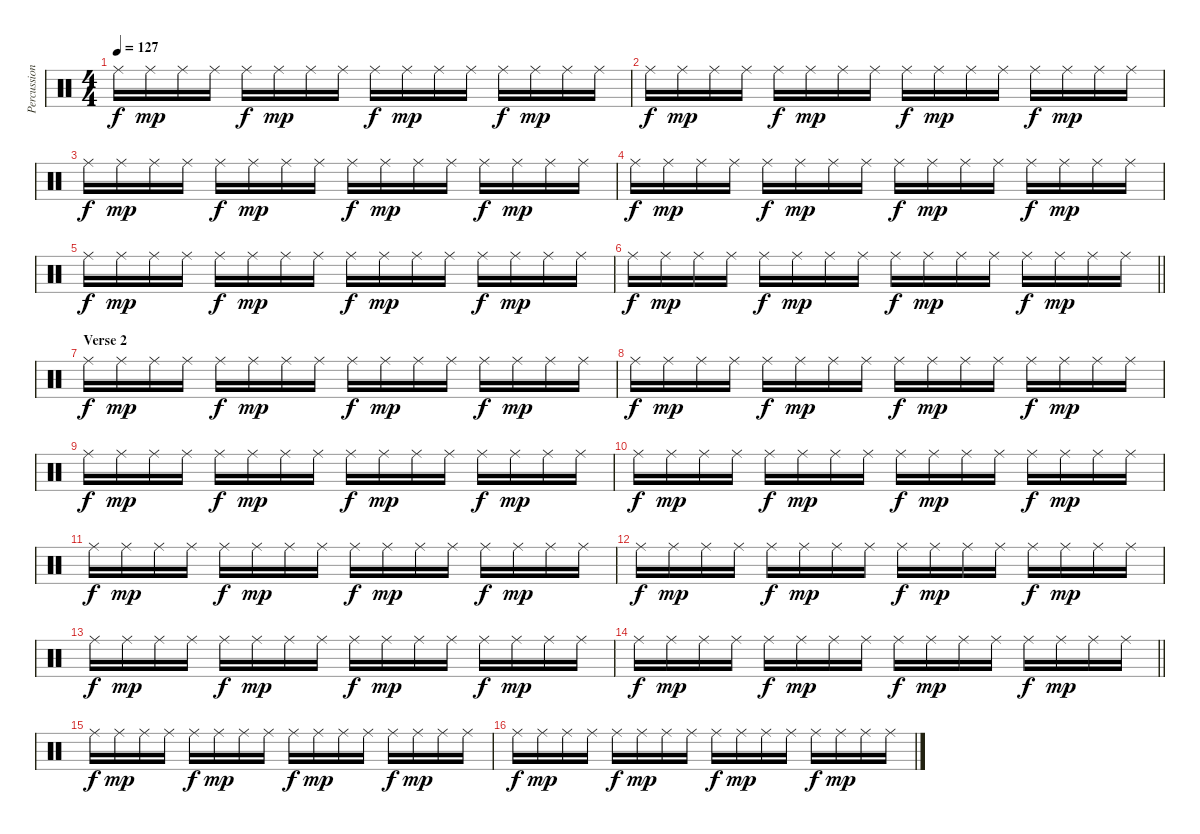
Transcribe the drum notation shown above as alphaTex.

\track ("Percussion" "Percussion") {instrument percussion}
\staff {score}
\articulation defaults
\ts (4 4)
\tempo 127
\clef neutral
\ks c "Ride (middle)".16{dy f} "Ride (middle)".16{dy mp} "Ride (middle)".16 "Ride (middle)".16 "Ride (middle)".16{dy f} "Ride (middle)".16{dy mp} "Ride (middle)".16 "Ride (middle)".16 "Ride (middle)".16{dy f} "Ride (middle)".16{dy mp} "Ride (middle)".16 "Ride (middle)".16 "Ride (middle)".16{dy f} "Ride (middle)".16{dy mp} "Ride (middle)".16 "Ride (middle)".16
|
"Ride (middle)".16{dy f} "Ride (middle)".16{dy mp} "Ride (middle)".16 "Ride (middle)".16 "Ride (middle)".16{dy f} "Ride (middle)".16{dy mp} "Ride (middle)".16 "Ride (middle)".16 "Ride (middle)".16{dy f} "Ride (middle)".16{dy mp} "Ride (middle)".16 "Ride (middle)".16 "Ride (middle)".16{dy f} "Ride (middle)".16{dy mp} "Ride (middle)".16 "Ride (middle)".16 |
"Ride (middle)".16{dy f} "Ride (middle)".16{dy mp} "Ride (middle)".16 "Ride (middle)".16 "Ride (middle)".16{dy f} "Ride (middle)".16{dy mp} "Ride (middle)".16 "Ride (middle)".16 "Ride (middle)".16{dy f} "Ride (middle)".16{dy mp} "Ride (middle)".16 "Ride (middle)".16 "Ride (middle)".16{dy f} "Ride (middle)".16{dy mp} "Ride (middle)".16 "Ride (middle)".16 |
"Ride (middle)".16{dy f} "Ride (middle)".16{dy mp} "Ride (middle)".16 "Ride (middle)".16 "Ride (middle)".16{dy f} "Ride (middle)".16{dy mp} "Ride (middle)".16 "Ride (middle)".16 "Ride (middle)".16{dy f} "Ride (middle)".16{dy mp} "Ride (middle)".16 "Ride (middle)".16 "Ride (middle)".16{dy f} "Ride (middle)".16{dy mp} "Ride (middle)".16 "Ride (middle)".16 |
"Ride (middle)".16{dy f} "Ride (middle)".16{dy mp} "Ride (middle)".16 "Ride (middle)".16 "Ride (middle)".16{dy f} "Ride (middle)".16{dy mp} "Ride (middle)".16 "Ride (middle)".16 "Ride (middle)".16{dy f} "Ride (middle)".16{dy mp} "Ride (middle)".16 "Ride (middle)".16 "Ride (middle)".16{dy f} "Ride (middle)".16{dy mp} "Ride (middle)".16 "Ride (middle)".16 |
\barLineRight lightlight "Ride (middle)".16{dy f} "Ride (middle)".16{dy mp} "Ride (middle)".16 "Ride (middle)".16 "Ride (middle)".16{dy f} "Ride (middle)".16{dy mp} "Ride (middle)".16 "Ride (middle)".16 "Ride (middle)".16{dy f} "Ride (middle)".16{dy mp} "Ride (middle)".16 "Ride (middle)".16 "Ride (middle)".16{dy f} "Ride (middle)".16{dy mp} "Ride (middle)".16 "Ride (middle)".16
|
\section ("" "Verse 2")
"Ride (middle)".16{dy f} "Ride (middle)".16{dy mp} "Ride (middle)".16 "Ride (middle)".16 "Ride (middle)".16{dy f} "Ride (middle)".16{dy mp} "Ride (middle)".16 "Ride (middle)".16 "Ride (middle)".16{dy f} "Ride (middle)".16{dy mp} "Ride (middle)".16 "Ride (middle)".16 "Ride (middle)".16{dy f} "Ride (middle)".16{dy mp} "Ride (middle)".16 "Ride (middle)".16 |
"Ride (middle)".16{dy f} "Ride (middle)".16{dy mp} "Ride (middle)".16 "Ride (middle)".16 "Ride (middle)".16{dy f} "Ride (middle)".16{dy mp} "Ride (middle)".16 "Ride (middle)".16 "Ride (middle)".16{dy f} "Ride (middle)".16{dy mp} "Ride (middle)".16 "Ride (middle)".16 "Ride (middle)".16{dy f} "Ride (middle)".16{dy mp} "Ride (middle)".16 "Ride (middle)".16 |
"Ride (middle)".16{dy f} "Ride (middle)".16{dy mp} "Ride (middle)".16 "Ride (middle)".16 "Ride (middle)".16{dy f} "Ride (middle)".16{dy mp} "Ride (middle)".16 "Ride (middle)".16 "Ride (middle)".16{dy f} "Ride (middle)".16{dy mp} "Ride (middle)".16 "Ride (middle)".16 "Ride (middle)".16{dy f} "Ride (middle)".16{dy mp} "Ride (middle)".16 "Ride (middle)".16 |
"Ride (middle)".16{dy f} "Ride (middle)".16{dy mp} "Ride (middle)".16 "Ride (middle)".16 "Ride (middle)".16{dy f} "Ride (middle)".16{dy mp} "Ride (middle)".16 "Ride (middle)".16 "Ride (middle)".16{dy f} "Ride (middle)".16{dy mp} "Ride (middle)".16 "Ride (middle)".16 "Ride (middle)".16{dy f} "Ride (middle)".16{dy mp} "Ride (middle)".16 "Ride (middle)".16 |
"Ride (middle)".16{dy f} "Ride (middle)".16{dy mp} "Ride (middle)".16 "Ride (middle)".16 "Ride (middle)".16{dy f} "Ride (middle)".16{dy mp} "Ride (middle)".16 "Ride (middle)".16 "Ride (middle)".16{dy f} "Ride (middle)".16{dy mp} "Ride (middle)".16 "Ride (middle)".16 "Ride (middle)".16{dy f} "Ride (middle)".16{dy mp} "Ride (middle)".16 "Ride (middle)".16 |
"Ride (middle)".16{dy f} "Ride (middle)".16{dy mp} "Ride (middle)".16 "Ride (middle)".16 "Ride (middle)".16{dy f} "Ride (middle)".16{dy mp} "Ride (middle)".16 "Ride (middle)".16 "Ride (middle)".16{dy f} "Ride (middle)".16{dy mp} "Ride (middle)".16 "Ride (middle)".16 "Ride (middle)".16{dy f} "Ride (middle)".16{dy mp} "Ride (middle)".16 "Ride (middle)".16 |
"Ride (middle)".16{dy f} "Ride (middle)".16{dy mp} "Ride (middle)".16 "Ride (middle)".16 "Ride (middle)".16{dy f} "Ride (middle)".16{dy mp} "Ride (middle)".16 "Ride (middle)".16 "Ride (middle)".16{dy f} "Ride (middle)".16{dy mp} "Ride (middle)".16 "Ride (middle)".16 "Ride (middle)".16{dy f} "Ride (middle)".16{dy mp} "Ride (middle)".16 "Ride (middle)".16 |
\barLineRight lightlight "Ride (middle)".16{dy f} "Ride (middle)".16{dy mp} "Ride (middle)".16 "Ride (middle)".16 "Ride (middle)".16{dy f} "Ride (middle)".16{dy mp} "Ride (middle)".16 "Ride (middle)".16 "Ride (middle)".16{dy f} "Ride (middle)".16{dy mp} "Ride (middle)".16 "Ride (middle)".16 "Ride (middle)".16{dy f} "Ride (middle)".16{dy mp} "Ride (middle)".16 "Ride (middle)".16
|
"Ride (middle)".16{dy f} "Ride (middle)".16{dy mp} "Ride (middle)".16 "Ride (middle)".16 "Ride (middle)".16{dy f} "Ride (middle)".16{dy mp} "Ride (middle)".16 "Ride (middle)".16 "Ride (middle)".16{dy f} "Ride (middle)".16{dy mp} "Ride (middle)".16 "Ride (middle)".16 "Ride (middle)".16{dy f} "Ride (middle)".16{dy mp} "Ride (middle)".16 "Ride (middle)".16 |
"Ride (middle)".16{dy f} "Ride (middle)".16{dy mp} "Ride (middle)".16 "Ride (middle)".16 "Ride (middle)".16{dy f} "Ride (middle)".16{dy mp} "Ride (middle)".16 "Ride (middle)".16 "Ride (middle)".16{dy f} "Ride (middle)".16{dy mp} "Ride (middle)".16 "Ride (middle)".16 "Ride (middle)".16{dy f} "Ride (middle)".16{dy mp} "Ride (middle)".16 "Ride (middle)".16
